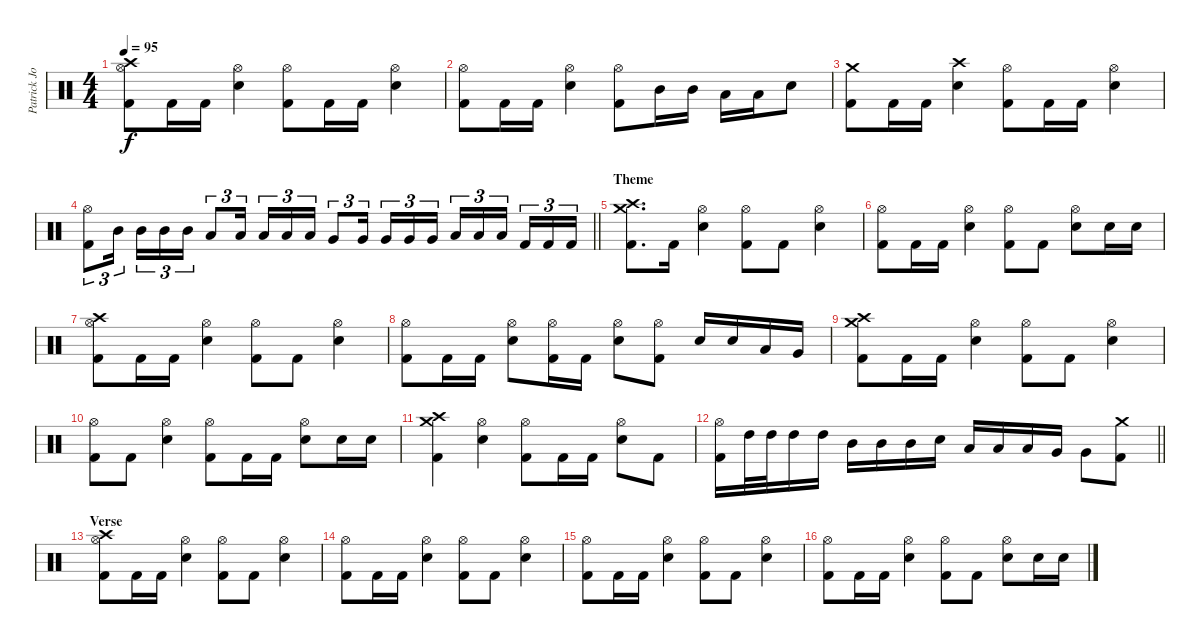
\track ("Patrick Johansson" "Patrick Jo") {instrument percussion}
\staff {score}
\articulation defaults
\ts (4 4)
\tempo 95
\clef neutral
\ks c
("Crash high (hit)" "Hi-Hat (open)" "Kick (hit) 2").8{dy f} "Kick (hit) 2".16 "Kick (hit) 2".16 ("Hi-Hat (open)" "Snare (hit) 2").4 ("Hi-Hat (open)" "Kick (hit) 2").8 "Kick (hit) 2".16 "Kick (hit) 2".16 ("Hi-Hat (open)" "Snare (hit) 2").4 |
("Hi-Hat (open)" "Kick (hit) 2").8 "Kick (hit) 2".16 "Kick (hit) 2".16 ("Hi-Hat (open)" "Snare (hit) 2").4 ("Hi-Hat (open)" "Kick (hit) 2").8 "Mid Tom (hit)".16 "Mid Tom (hit)".16 "Low Tom (hit)".16 "Low Tom (hit)".16 "Snare (hit) 2".8 |
("Crash medium (hit)" "Kick (hit) 2").8 "Kick (hit) 2".16 "Kick (hit) 2".16 ("Crash high (hit)" "Snare (hit) 2").4 ("Hi-Hat (open)" "Kick (hit) 2").8 "Kick (hit) 2".16 "Kick (hit) 2".16 ("Hi-Hat (open)" "Snare (hit) 2").4 |
\barLineRight lightlight
("Hi-Hat (open)" "Kick (hit) 2").8{tu (3 2)} "Mid Tom (hit)".16{tu (3 2) beam splitsecondary} "Mid Tom (hit)".16{tu (3 2)} "Mid Tom (hit)".16{tu (3 2)} "Mid Tom (hit)".16{tu (3 2)} "Low Tom (hit)".8{tu (3 2)} "Low Tom (hit)".16{tu (3 2) beam splitsecondary} "Low Tom (hit)".16{tu (3 2)} "Low Tom (hit)".16{tu (3 2)} "Low Tom (hit)".16{tu (3 2)} "Very Low Tom (hit)".8{tu (3 2)} "Very Low Tom (hit)".16{tu (3 2) beam splitsecondary} "Very Low Tom (hit)".16{tu (3 2)} "Very Low Tom (hit)".16{tu (3 2)} "Very Low Tom (hit)".16{tu (3 2)} "Low Floor Tom (hit)".16{tu (3 2)} "Low Floor Tom (hit)".16{tu (3 2)} "Low Floor Tom (hit)".16{tu (3 2) beam splitsecondary} "Kick (hit) 2".16{tu (3 2)} "Kick (hit) 2".16{tu (3 2)} "Kick (hit) 2".16{tu (3 2)} |
\section ("" "Theme")
("Crash high (hit)" "Crash medium (hit)" "Kick (hit) 2").8{d} "Kick (hit) 2".16 ("Hi-Hat (open)" "Snare (hit) 2").4 ("Hi-Hat (open)" "Kick (hit) 2").8 "Kick (hit) 2".8 ("Hi-Hat (open)" "Snare (hit) 2").4 |
("Hi-Hat (open)" "Kick (hit) 2").8 "Kick (hit) 2".16 "Kick (hit) 2".16 ("Hi-Hat (open)" "Snare (hit) 2").4 ("Hi-Hat (open)" "Kick (hit) 2").8 "Kick (hit) 2".8 ("Hi-Hat (open)" "Snare (hit) 2").8 "Snare (hit) 2".16 "Snare (hit) 2".16 |
("Crash high (hit)" "Hi-Hat (open)" "Kick (hit) 2").8 "Kick (hit) 2".16 "Kick (hit) 2".16 ("Hi-Hat (open)" "Snare (hit) 2").4 ("Hi-Hat (open)" "Kick (hit) 2").8 "Kick (hit) 2".8 ("Hi-Hat (open)" "Snare (hit) 2").4 |
("Hi-Hat (open)" "Kick (hit) 2").8 "Kick (hit) 2".16 "Kick (hit) 2".16 ("Hi-Hat (open)" "Snare (hit) 2").8 ("Hi-Hat (open)" "Kick (hit) 2").16 "Kick (hit) 2".16 ("Hi-Hat (open)" "Snare (hit) 2").8 ("Hi-Hat (open)" "Kick (hit) 2").8 "Snare (hit) 2".16 "Snare (hit) 2".16 "Low Tom (hit)".16 "Very Low Tom (hit)".16 |
("Crash high (hit)" "Crash medium (hit)" "Kick (hit) 2").8 "Kick (hit) 2".16 "Kick (hit) 2".16 ("Hi-Hat (open)" "Snare (hit) 2").4 ("Hi-Hat (open)" "Kick (hit) 2").8 "Kick (hit) 2".8 ("Hi-Hat (open)" "Snare (hit) 2").4 |
("Hi-Hat (open)" "Kick (hit) 2").8 "Kick (hit) 2".8 ("Hi-Hat (open)" "Snare (hit) 2").4 ("Hi-Hat (open)" "Kick (hit) 2").8 "Kick (hit) 2".16 "Kick (hit) 2".16 ("Hi-Hat (open)" "Snare (hit) 2").8 "Snare (hit) 2".16 "Snare (hit) 2".16 |
("Crash medium (hit)" "Crash high (hit)" "Kick (hit) 2").4 ("Hi-Hat (open)" "Snare (hit) 2").4 ("Hi-Hat (open)" "Kick (hit) 2").8 "Kick (hit) 2".16 "Kick (hit) 2".16 ("Hi-Hat (open)" "Snare (hit) 2").8 "Kick (hit) 2".8 |
\barLineRight lightlight
("Hi-Hat (open)" "Kick (hit) 2").16 "High Tom (hit)".32 "High Tom (hit)".32 "High Tom (hit)".16 "High Tom (hit)".16 "Mid Tom (hit)".16 "Mid Tom (hit)".16 "Mid Tom (hit)".16 "Snare (hit) 2".16 "Low Tom (hit)".16 "Low Tom (hit)".16 "Low Tom (hit)".16 "Very Low Tom (hit)".16 "Very Low Tom (hit)".8 ("Crash medium (hit)" "Kick (hit) 2").8 |
\section ("" "Verse")
("Crash high (hit)" "Hi-Hat (open)" "Kick (hit) 2").8 "Kick (hit) 2".16 "Kick (hit) 2".16 ("Hi-Hat (open)" "Snare (hit) 2").4 ("Hi-Hat (open)" "Kick (hit) 2").8 "Kick (hit) 2".8 ("Hi-Hat (open)" "Snare (hit) 2").4 |
("Hi-Hat (open)" "Kick (hit) 2").8 "Kick (hit) 2".16 "Kick (hit) 2".16 ("Hi-Hat (open)" "Snare (hit) 2").4 ("Hi-Hat (open)" "Kick (hit) 2").8 "Kick (hit) 2".8 ("Hi-Hat (open)" "Snare (hit) 2").4 |
("Hi-Hat (open)" "Kick (hit) 2").8 "Kick (hit) 2".16 "Kick (hit) 2".16 ("Hi-Hat (open)" "Snare (hit) 2").4 ("Hi-Hat (open)" "Kick (hit) 2").8 "Kick (hit) 2".8 ("Hi-Hat (open)" "Snare (hit) 2").4 |
("Hi-Hat (open)" "Kick (hit) 2").8 "Kick (hit) 2".16 "Kick (hit) 2".16 ("Hi-Hat (open)" "Snare (hit) 2").4 ("Hi-Hat (open)" "Kick (hit) 2").8 "Kick (hit) 2".8 ("Hi-Hat (open)" "Snare (hit) 2").8 "Snare (hit) 2".16 "Snare (hit) 2".16
